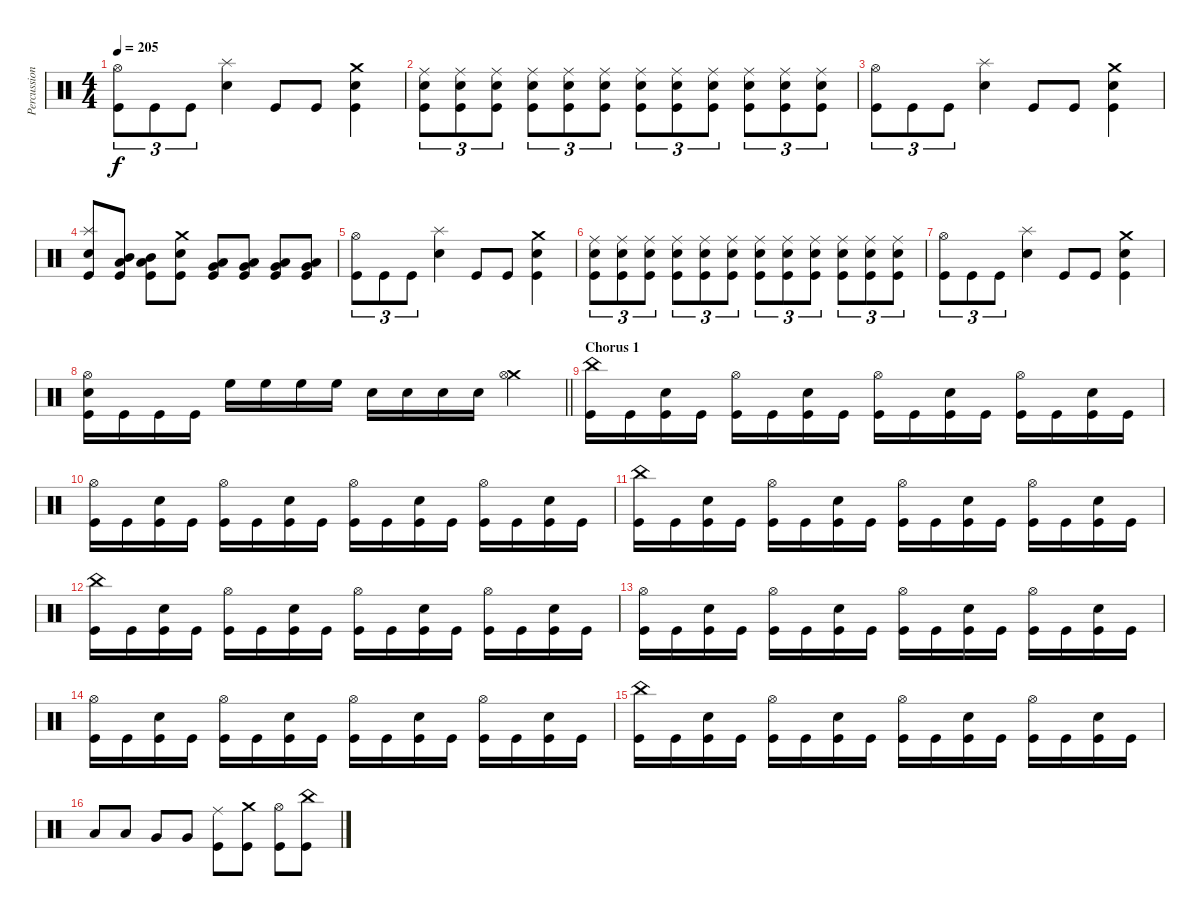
\track ("Percussion" "Percussion") {instrument percussion}
\staff {score}
\articulation defaults
\ts (4 4)
\tempo 205
\clef neutral
\ks c
("Hi-Hat (open)" "Kick (hit)").8{tu (3 2) dy f} "Kick (hit)".8{tu (3 2)} "Kick (hit)".8{tu (3 2)} ("Splash (hit)" "Electric Snare (hit)").4 "Kick (hit)".8 "Kick (hit)".8 ("Crash medium (hit)" "Electric Snare (hit)" "Kick (hit)").4 |
("Ride (middle)" "Electric Snare (hit)" "Kick (hit)").8{tu (3 2)} ("Ride (middle)" "Electric Snare (hit)" "Kick (hit)").8{tu (3 2)} ("Ride (middle)" "Electric Snare (hit)" "Kick (hit)").8{tu (3 2)} ("Ride (middle)" "Electric Snare (hit)" "Kick (hit)").8{tu (3 2)} ("Ride (middle)" "Electric Snare (hit)" "Kick (hit)").8{tu (3 2)} ("Ride (middle)" "Electric Snare (hit)" "Kick (hit)").8{tu (3 2)} ("Ride (middle)" "Electric Snare (hit)" "Kick (hit)").8{tu (3 2)} ("Ride (middle)" "Electric Snare (hit)" "Kick (hit)").8{tu (3 2)} ("Ride (middle)" "Electric Snare (hit)" "Kick (hit)").8{tu (3 2)} ("Ride (middle)" "Electric Snare (hit)" "Kick (hit)").8{tu (3 2)} ("Ride (middle)" "Electric Snare (hit)" "Kick (hit)").8{tu (3 2)} ("Ride (middle)" "Electric Snare (hit)" "Kick (hit)").8{tu (3 2)} |
("Hi-Hat (open)" "Kick (hit)").8{tu (3 2)} "Kick (hit)".8{tu (3 2)} "Kick (hit)".8{tu (3 2)} ("Splash (hit)" "Electric Snare (hit)").4 "Kick (hit)".8 "Kick (hit)".8 ("Crash medium (hit)" "Electric Snare (hit)" "Kick (hit)").4 |
("Splash (hit)" "Electric Snare (hit)" "Kick (hit)").8 ("Low Tom (hit)" "Mid Tom (hit)" "Kick (hit)").8 ("Low Tom (hit)" "Mid Tom (hit)" "Kick (hit)").8 ("Crash medium (hit)" "Electric Snare (hit)" "Kick (hit)").8 ("Low Tom (hit)" "Very Low Tom (hit)" "Kick (hit)").8 ("Low Tom (hit)" "Very Low Tom (hit)" "Kick (hit)").8 ("Low Tom (hit)" "Very Low Tom (hit)" "Kick (hit)").8 ("Low Tom (hit)" "Very Low Tom (hit)" "Kick (hit)").8 |
("Hi-Hat (open)" "Kick (hit)").8{tu (3 2)} "Kick (hit)".8{tu (3 2)} "Kick (hit)".8{tu (3 2)} ("Splash (hit)" "Electric Snare (hit)").4 "Kick (hit)".8 "Kick (hit)".8 ("Crash medium (hit)" "Electric Snare (hit)" "Kick (hit)").4 |
("Ride (middle)" "Electric Snare (hit)" "Kick (hit)").8{tu (3 2)} ("Ride (middle)" "Electric Snare (hit)" "Kick (hit)").8{tu (3 2)} ("Ride (middle)" "Electric Snare (hit)" "Kick (hit)").8{tu (3 2)} ("Ride (middle)" "Electric Snare (hit)" "Kick (hit)").8{tu (3 2)} ("Ride (middle)" "Electric Snare (hit)" "Kick (hit)").8{tu (3 2)} ("Ride (middle)" "Electric Snare (hit)" "Kick (hit)").8{tu (3 2)} ("Ride (middle)" "Electric Snare (hit)" "Kick (hit)").8{tu (3 2)} ("Ride (middle)" "Electric Snare (hit)" "Kick (hit)").8{tu (3 2)} ("Ride (middle)" "Electric Snare (hit)" "Kick (hit)").8{tu (3 2)} ("Ride (middle)" "Electric Snare (hit)" "Kick (hit)").8{tu (3 2)} ("Ride (middle)" "Electric Snare (hit)" "Kick (hit)").8{tu (3 2)} ("Ride (middle)" "Electric Snare (hit)" "Kick (hit)").8{tu (3 2)} |
("Hi-Hat (open)" "Kick (hit)").8{tu (3 2)} "Kick (hit)".8{tu (3 2)} "Kick (hit)".8{tu (3 2)} ("Splash (hit)" "Electric Snare (hit)").4 "Kick (hit)".8 "Kick (hit)".8 ("Crash medium (hit)" "Electric Snare (hit)" "Kick (hit)").4 |
\barLineRight lightlight
("Hi-Hat (open)" "Electric Snare (hit)" "Kick (hit)").16 "Kick (hit)".16 "Kick (hit)".16 "Kick (hit)".16 "High Floor Tom (hit)".16 "High Floor Tom (hit)".16 "High Floor Tom (hit)".16 "High Floor Tom (hit)".16 "Electric Snare (hit)".16 "Electric Snare (hit)".16 "Electric Snare (hit)".16 "Electric Snare (hit)".16 ("Crash medium (hit)" "Hi-Hat (open)").4 |
\section ("" "Chorus 1")
("China (hit)" "Kick (hit)").16 "Kick (hit)".16 ("Electric Snare (hit)" "Kick (hit)").16 "Kick (hit)".16 ("Hi-Hat (open)" "Kick (hit)").16 "Kick (hit)".16 ("Electric Snare (hit)" "Kick (hit)").16 "Kick (hit)".16 ("Hi-Hat (open)" "Kick (hit)").16 "Kick (hit)".16 ("Electric Snare (hit)" "Kick (hit)").16 "Kick (hit)".16 ("Hi-Hat (open)" "Kick (hit)").16 "Kick (hit)".16 ("Electric Snare (hit)" "Kick (hit)").16 "Kick (hit)".16 |
("Hi-Hat (open)" "Kick (hit)").16 "Kick (hit)".16 ("Electric Snare (hit)" "Kick (hit)").16 "Kick (hit)".16 ("Hi-Hat (open)" "Kick (hit)").16 "Kick (hit)".16 ("Electric Snare (hit)" "Kick (hit)").16 "Kick (hit)".16 ("Hi-Hat (open)" "Kick (hit)").16 "Kick (hit)".16 ("Electric Snare (hit)" "Kick (hit)").16 "Kick (hit)".16 ("Hi-Hat (open)" "Kick (hit)").16 "Kick (hit)".16 ("Electric Snare (hit)" "Kick (hit)").16 "Kick (hit)".16 |
("China (hit)" "Kick (hit)").16 "Kick (hit)".16 ("Electric Snare (hit)" "Kick (hit)").16 "Kick (hit)".16 ("Hi-Hat (open)" "Kick (hit)").16 "Kick (hit)".16 ("Electric Snare (hit)" "Kick (hit)").16 "Kick (hit)".16 ("Hi-Hat (open)" "Kick (hit)").16 "Kick (hit)".16 ("Electric Snare (hit)" "Kick (hit)").16 "Kick (hit)".16 ("Hi-Hat (open)" "Kick (hit)").16 "Kick (hit)".16 ("Electric Snare (hit)" "Kick (hit)").16 "Kick (hit)".16 |
("China (hit)" "Kick (hit)").16 "Kick (hit)".16 ("Electric Snare (hit)" "Kick (hit)").16 "Kick (hit)".16 ("Hi-Hat (open)" "Kick (hit)").16 "Kick (hit)".16 ("Electric Snare (hit)" "Kick (hit)").16 "Kick (hit)".16 ("Hi-Hat (open)" "Kick (hit)").16 "Kick (hit)".16 ("Electric Snare (hit)" "Kick (hit)").16 "Kick (hit)".16 ("Hi-Hat (open)" "Kick (hit)").16 "Kick (hit)".16 ("Electric Snare (hit)" "Kick (hit)").16 "Kick (hit)".16 |
("Hi-Hat (open)" "Kick (hit)").16 "Kick (hit)".16 ("Electric Snare (hit)" "Kick (hit)").16 "Kick (hit)".16 ("Hi-Hat (open)" "Kick (hit)").16 "Kick (hit)".16 ("Electric Snare (hit)" "Kick (hit)").16 "Kick (hit)".16 ("Hi-Hat (open)" "Kick (hit)").16 "Kick (hit)".16 ("Electric Snare (hit)" "Kick (hit)").16 "Kick (hit)".16 ("Hi-Hat (open)" "Kick (hit)").16 "Kick (hit)".16 ("Electric Snare (hit)" "Kick (hit)").16 "Kick (hit)".16 |
("Hi-Hat (open)" "Kick (hit)").16 "Kick (hit)".16 ("Electric Snare (hit)" "Kick (hit)").16 "Kick (hit)".16 ("Hi-Hat (open)" "Kick (hit)").16 "Kick (hit)".16 ("Electric Snare (hit)" "Kick (hit)").16 "Kick (hit)".16 ("Hi-Hat (open)" "Kick (hit)").16 "Kick (hit)".16 ("Electric Snare (hit)" "Kick (hit)").16 "Kick (hit)".16 ("Hi-Hat (open)" "Kick (hit)").16 "Kick (hit)".16 ("Electric Snare (hit)" "Kick (hit)").16 "Kick (hit)".16 |
("China (hit)" "Kick (hit)").16 "Kick (hit)".16 ("Electric Snare (hit)" "Kick (hit)").16 "Kick (hit)".16 ("Hi-Hat (open)" "Kick (hit)").16 "Kick (hit)".16 ("Electric Snare (hit)" "Kick (hit)").16 "Kick (hit)".16 ("Hi-Hat (open)" "Kick (hit)").16 "Kick (hit)".16 ("Electric Snare (hit)" "Kick (hit)").16 "Kick (hit)".16 ("Hi-Hat (open)" "Kick (hit)").16 "Kick (hit)".16 ("Electric Snare (hit)" "Kick (hit)").16 "Kick (hit)".16 |
"Low Tom (hit)".8 "Low Tom (hit)".8 "Very Low Tom (hit)".8 "Very Low Tom (hit)".8 ("Ride (middle)" "Kick (hit)").8 ("Crash medium (hit)" "Kick (hit)").8 ("Hi-Hat (open)" "Kick (hit)").8 ("China (hit)" "Kick (hit)").8
